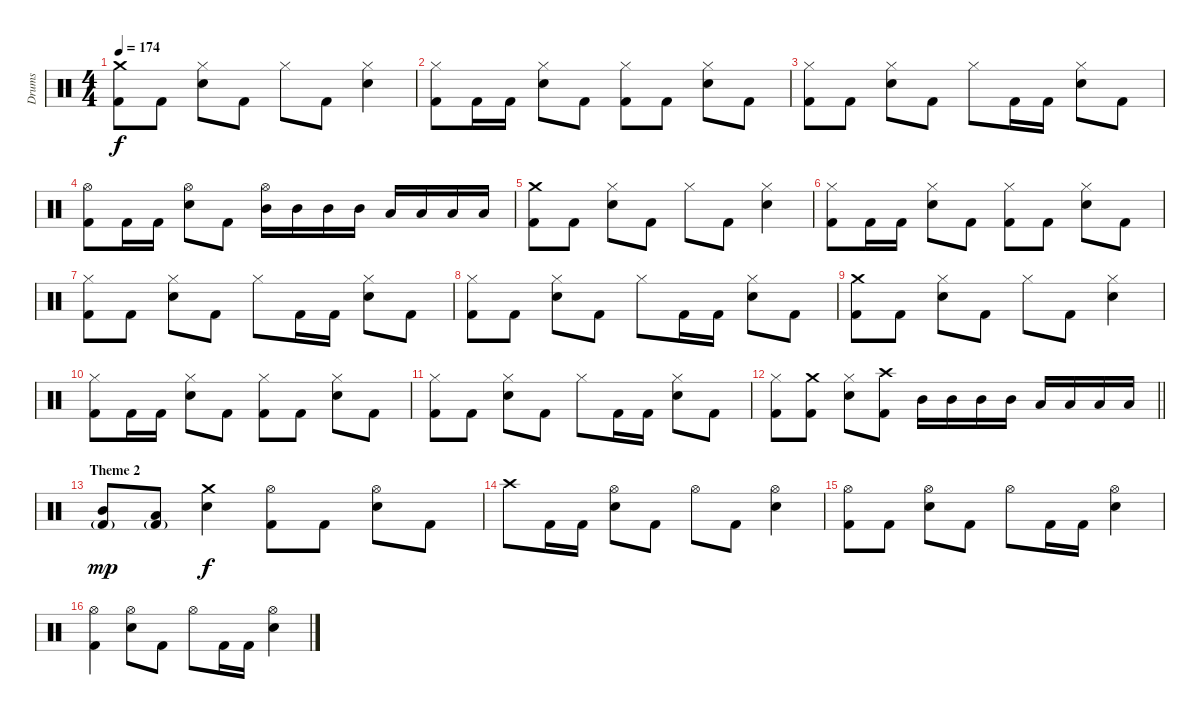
\track ("Drums" "Drums") {instrument percussion}
\staff {score}
\articulation defaults
\ts (4 4)
\tempo 174
\clef neutral
\ks c
("Crash medium (hit)" "Kick (hit) 2").8{dy f} "Kick (hit) 2".8 ("Hi-Hat (closed)" "Snare (hit) 2").8 "Kick (hit) 2".8 "Hi-Hat (closed)".8 "Kick (hit) 2".8 ("Hi-Hat (closed)" "Snare (hit) 2").4 |
("Hi-Hat (closed)" "Kick (hit) 2").8 "Kick (hit) 2".16 "Kick (hit) 2".16 ("Hi-Hat (closed)" "Snare (hit) 2").8 "Kick (hit) 2".8 ("Hi-Hat (closed)" "Kick (hit) 2").8 "Kick (hit) 2".8 ("Hi-Hat (closed)" "Snare (hit) 2").8 "Kick (hit) 2".8 |
("Hi-Hat (closed)" "Kick (hit) 2").8 "Kick (hit) 2".8 ("Hi-Hat (closed)" "Snare (hit) 2").8 "Kick (hit) 2".8 "Hi-Hat (closed)".8 "Kick (hit) 2".16 "Kick (hit) 2".16 ("Hi-Hat (closed)" "Snare (hit) 2").8 "Kick (hit) 2".8 |
("Hi-Hat (open)" "Kick (hit) 2").8 "Kick (hit) 2".16 "Kick (hit) 2".16 ("Hi-Hat (open)" "Snare (hit) 2").8 "Kick (hit) 2".8 ("Hi-Hat (open)" "Mid Tom (hit)").16 "Mid Tom (hit)".16 "Mid Tom (hit)".16 "Mid Tom (hit)".16 "Low Tom (hit)".16 "Low Tom (hit)".16 "Low Tom (hit)".16 "Low Tom (hit)".16 |
("Crash medium (hit)" "Kick (hit) 2").8 "Kick (hit) 2".8 ("Hi-Hat (closed)" "Snare (hit) 2").8 "Kick (hit) 2".8 "Hi-Hat (closed)".8 "Kick (hit) 2".8 ("Hi-Hat (closed)" "Snare (hit) 2").4 |
("Hi-Hat (closed)" "Kick (hit) 2").8 "Kick (hit) 2".16 "Kick (hit) 2".16 ("Hi-Hat (closed)" "Snare (hit) 2").8 "Kick (hit) 2".8 ("Hi-Hat (closed)" "Kick (hit) 2").8 "Kick (hit) 2".8 ("Hi-Hat (closed)" "Snare (hit) 2").8 "Kick (hit) 2".8 |
("Hi-Hat (closed)" "Kick (hit) 2").8 "Kick (hit) 2".8 ("Hi-Hat (closed)" "Snare (hit) 2").8 "Kick (hit) 2".8 "Hi-Hat (closed)".8 "Kick (hit) 2".16 "Kick (hit) 2".16 ("Hi-Hat (closed)" "Snare (hit) 2").8 "Kick (hit) 2".8 |
("Hi-Hat (closed)" "Kick (hit) 2").8 "Kick (hit) 2".8 ("Hi-Hat (closed)" "Snare (hit) 2").8 "Kick (hit) 2".8 "Hi-Hat (closed)".8 "Kick (hit) 2".16 "Kick (hit) 2".16 ("Hi-Hat (closed)" "Snare (hit) 2").8 "Kick (hit) 2".8 |
("Crash medium (hit)" "Kick (hit) 2").8 "Kick (hit) 2".8 ("Hi-Hat (closed)" "Snare (hit) 2").8 "Kick (hit) 2".8 "Hi-Hat (closed)".8 "Kick (hit) 2".8 ("Hi-Hat (closed)" "Snare (hit) 2").4 |
("Hi-Hat (closed)" "Kick (hit) 2").8 "Kick (hit) 2".16 "Kick (hit) 2".16 ("Hi-Hat (closed)" "Snare (hit) 2").8 "Kick (hit) 2".8 ("Hi-Hat (closed)" "Kick (hit) 2").8 "Kick (hit) 2".8 ("Hi-Hat (closed)" "Snare (hit) 2").8 "Kick (hit) 2".8 |
("Hi-Hat (closed)" "Kick (hit) 2").8 "Kick (hit) 2".8 ("Hi-Hat (closed)" "Snare (hit) 2").8 "Kick (hit) 2".8 "Hi-Hat (closed)".8 "Kick (hit) 2".16 "Kick (hit) 2".16 ("Hi-Hat (closed)" "Snare (hit) 2").8 "Kick (hit) 2".8 |
\barLineRight lightlight
("Hi-Hat (closed)" "Kick (hit) 2").8 ("Crash medium (hit)" "Kick (hit) 2").8 ("Hi-Hat (closed)" "Snare (hit) 2").8 ("Crash high (hit)" "Kick (hit) 2").8 "Mid Tom (hit)".16 "Mid Tom (hit)".16 "Mid Tom (hit)".16 "Mid Tom (hit)".16 "Low Tom (hit)".16 "Low Tom (hit)".16 "Low Tom (hit)".16 "Low Tom (hit)".16 |
\section ("" "Theme 2")
("Mid Tom (hit)" "Kick (hit) 2"{g}).8{dy mp} ("Low Tom (hit)" "Kick (hit) 2"{g}).8 ("Crash medium (hit)" "Snare (hit) 2").4{dy f} ("Hi-Hat (open)" "Kick (hit) 2").8 "Kick (hit) 2".8 ("Hi-Hat (open)" "Snare (hit) 2").8 "Kick (hit) 2".8 |
"Crash high (hit)".8 "Kick (hit) 2".16 "Kick (hit) 2".16 ("Hi-Hat (open)" "Snare (hit) 2").8 "Kick (hit) 2".8 "Hi-Hat (open)".8 "Kick (hit) 2".8 ("Hi-Hat (open)" "Snare (hit) 2").4 |
("Hi-Hat (open)" "Kick (hit) 2").8 "Kick (hit) 2".8 ("Hi-Hat (open)" "Snare (hit) 2").8 "Kick (hit) 2".8 "Hi-Hat (open)".8 "Kick (hit) 2".16 "Kick (hit) 2".16 ("Hi-Hat (open)" "Snare (hit) 2").4 |
("Hi-Hat (open)" "Kick (hit) 2").4 ("Hi-Hat (open)" "Snare (hit) 2").8 "Kick (hit) 2".8 "Hi-Hat (open)".8 "Kick (hit) 2".16 "Kick (hit) 2".16 ("Hi-Hat (open)" "Snare (hit) 2").4
